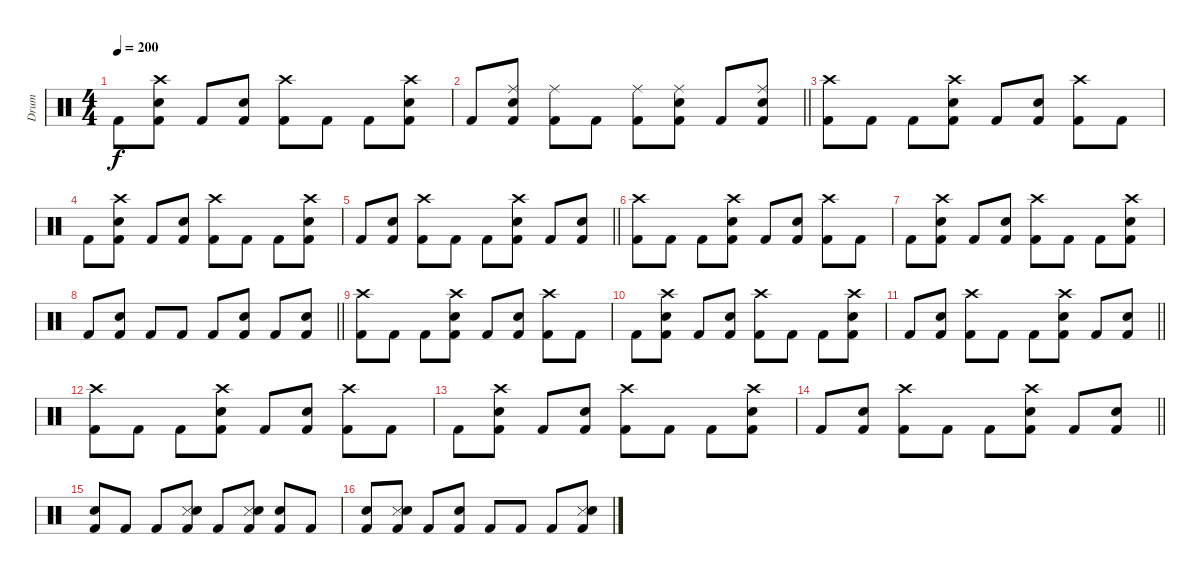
\track ("Drum" "Drum") {instrument percussion}
\staff {score}
\articulation defaults
\ts (4 4)
\tempo 200
\clef neutral
\ks c "Kick (hit) 2".8{dy f}
("Snare (hit) 2" "Crash high (hit)" "Kick (hit) 2").8 "Kick (hit) 2".8 ("Snare (hit) 2" "Kick (hit) 2").8 ("Crash high (hit)" "Kick (hit) 2").8 "Kick (hit) 2".8 "Kick (hit) 2".8 ("Snare (hit) 2" "Crash high (hit)" "Kick (hit) 2").8 |
\barLineRight lightlight "Kick (hit) 2".8
("Ride (middle)" "Electric Snare (hit)" "Kick (hit) 2").8 ("Ride (middle)" "Kick (hit) 2").8 "Kick (hit) 2".8 ("Ride (middle)" "Kick (hit) 2").8 ("Ride (middle)" "Electric Snare (hit)" "Kick (hit) 2").8 "Kick (hit) 2".8 ("Ride (middle)" "Electric Snare (hit)" "Kick (hit) 2").8 |
("Crash high (hit)" "Kick (hit) 2").8 "Kick (hit) 2".8 "Kick (hit) 2".8 ("Snare (hit) 2" "Crash high (hit)" "Kick (hit) 2").8 "Kick (hit) 2".8 ("Snare (hit) 2" "Kick (hit) 2").8 ("Crash high (hit)" "Kick (hit) 2").8 "Kick (hit) 2".8 |
"Kick (hit) 2".8 ("Snare (hit) 2" "Crash high (hit)" "Kick (hit) 2").8 "Kick (hit) 2".8 ("Snare (hit) 2" "Kick (hit) 2").8 ("Crash high (hit)" "Kick (hit) 2").8 "Kick (hit) 2".8 "Kick (hit) 2".8 ("Snare (hit) 2" "Crash high (hit)" "Kick (hit) 2").8 |
\barLineRight lightlight "Kick (hit) 2".8
("Snare (hit) 2" "Kick (hit) 2").8 ("Crash high (hit)" "Kick (hit) 2").8 "Kick (hit) 2".8 "Kick (hit) 2".8 ("Snare (hit) 2" "Crash high (hit)" "Kick (hit) 2").8 "Kick (hit) 2".8 ("Snare (hit) 2" "Kick (hit) 2").8 |
("Crash high (hit)" "Kick (hit) 2").8 "Kick (hit) 2".8 "Kick (hit) 2".8 ("Snare (hit) 2" "Crash high (hit)" "Kick (hit) 2").8 "Kick (hit) 2".8 ("Snare (hit) 2" "Kick (hit) 2").8 ("Crash high (hit)" "Kick (hit) 2").8 "Kick (hit) 2".8 |
"Kick (hit) 2".8 ("Snare (hit) 2" "Crash high (hit)" "Kick (hit) 2").8 "Kick (hit) 2".8 ("Snare (hit) 2" "Kick (hit) 2").8 ("Crash high (hit)" "Kick (hit) 2").8 "Kick (hit) 2".8 "Kick (hit) 2".8 ("Snare (hit) 2" "Crash high (hit)" "Kick (hit) 2").8 |
\barLineRight lightlight "Kick (hit) 2".8
("Electric Snare (hit)" "Kick (hit) 2").8 "Kick (hit) 2".8 "Kick (hit) 2".8 "Kick (hit) 2".8 ("Electric Snare (hit)" "Kick (hit) 2").8 "Kick (hit) 2".8 ("Electric Snare (hit)" "Kick (hit) 2").8 |
("Crash high (hit)" "Kick (hit) 2").8 "Kick (hit) 2".8 "Kick (hit) 2".8 ("Snare (hit) 2" "Crash high (hit)" "Kick (hit) 2").8 "Kick (hit) 2".8 ("Snare (hit) 2" "Kick (hit) 2").8 ("Crash high (hit)" "Kick (hit) 2").8 "Kick (hit) 2".8 |
"Kick (hit) 2".8 ("Snare (hit) 2" "Crash high (hit)" "Kick (hit) 2").8 "Kick (hit) 2".8 ("Snare (hit) 2" "Kick (hit) 2").8 ("Crash high (hit)" "Kick (hit) 2").8 "Kick (hit) 2".8 "Kick (hit) 2".8 ("Snare (hit) 2" "Crash high (hit)" "Kick (hit) 2").8 |
\barLineRight lightlight "Kick (hit) 2".8
("Snare (hit) 2" "Kick (hit) 2").8 ("Crash high (hit)" "Kick (hit) 2").8 "Kick (hit) 2".8 "Kick (hit) 2".8 ("Snare (hit) 2" "Crash high (hit)" "Kick (hit) 2").8 "Kick (hit) 2".8 ("Snare (hit) 2" "Kick (hit) 2").8 |
("Crash high (hit)" "Kick (hit) 2").8 "Kick (hit) 2".8 "Kick (hit) 2".8 ("Snare (hit) 2" "Crash high (hit)" "Kick (hit) 2").8 "Kick (hit) 2".8 ("Snare (hit) 2" "Kick (hit) 2").8 ("Crash high (hit)" "Kick (hit) 2").8 "Kick (hit) 2".8 |
"Kick (hit) 2".8 ("Snare (hit) 2" "Crash high (hit)" "Kick (hit) 2").8 "Kick (hit) 2".8 ("Snare (hit) 2" "Kick (hit) 2").8 ("Crash high (hit)" "Kick (hit) 2").8 "Kick (hit) 2".8 "Kick (hit) 2".8 ("Snare (hit) 2" "Crash high (hit)" "Kick (hit) 2").8 |
\barLineRight lightlight "Kick (hit) 2".8
("Snare (hit) 2" "Kick (hit) 2").8 ("Crash high (hit)" "Kick (hit) 2").8 "Kick (hit) 2".8 "Kick (hit) 2".8 ("Snare (hit) 2" "Crash high (hit)" "Kick (hit) 2").8 "Kick (hit) 2".8 ("Snare (hit) 2" "Kick (hit) 2").8 |
\section ("" " ")
("Snare (hit) 2" "Kick (hit) 2").8 "Kick (hit) 2".8 "Kick (hit) 2".8 ("Snare (side stick) 3" "Electric Snare (hit)" "Kick (hit) 2").8 "Kick (hit) 2".8 ("Snare (side stick) 3" "Electric Snare (hit)" "Kick (hit) 2").8 ("Snare (hit) 2" "Kick (hit) 2").8 "Kick (hit) 2".8 |
("Snare (hit) 2" "Kick (hit) 2").8 ("Snare (side stick) 3" "Electric Snare (hit)" "Kick (hit) 2").8 "Kick (hit) 2".8 ("Snare (hit) 2" "Kick (hit) 2").8 "Kick (hit) 2".8 "Kick (hit) 2".8 "Kick (hit) 2".8 ("Snare (side stick) 3" "Electric Snare (hit)" "Kick (hit) 2").8
